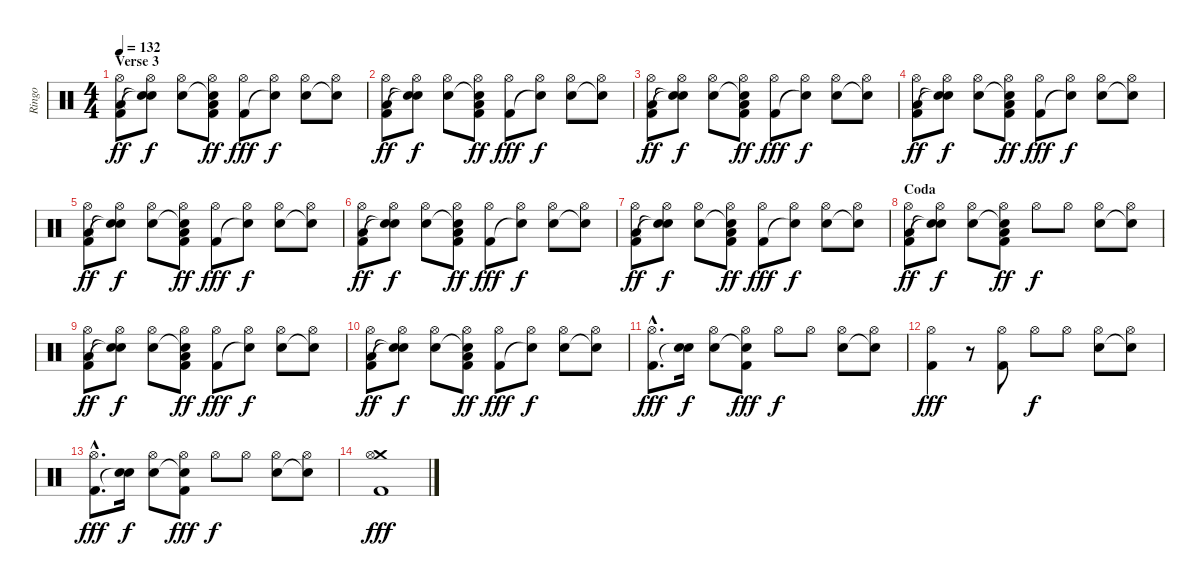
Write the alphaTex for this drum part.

\track ("Ringo" "Ringo") {instrument percussion}
\staff {score}
\articulation defaults
\ts (4 4)
\section ("" "Verse 3")
\tempo 132
\clef neutral
\ks c
("Hi-Hat (open)" "Kick (hit) 2" "Low Floor Tom (hit)").8{dy ff} ("Hi-Hat (open)" "Snare (hit)"{t} "Snare (hit)"{t}).8{dy f} ("Hi-Hat (open)" "Snare (hit) 2").8 ("Hi-Hat (open)" "Snare (hit)"{t} "Kick (hit) 2" "Low Floor Tom (hit)").8{dy ff} ("Hi-Hat (open)" "Kick (hit) 2").8{dy fff} ("Hi-Hat (open)" "Snare (hit)"{t}).8{dy f} ("Hi-Hat (open)" "Snare (hit) 2").8 ("Hi-Hat (open)" "Snare (hit)"{t}).8 |
("Hi-Hat (open)" "Kick (hit) 2" "Low Floor Tom (hit)").8{dy ff} ("Hi-Hat (open)" "Snare (hit)"{t} "Snare (hit)"{t}).8{dy f} ("Hi-Hat (open)" "Snare (hit) 2").8 ("Hi-Hat (open)" "Snare (hit)"{t} "Kick (hit) 2" "Low Floor Tom (hit)").8{dy ff} ("Hi-Hat (open)" "Kick (hit) 2").8{dy fff} ("Hi-Hat (open)" "Snare (hit)"{t}).8{dy f} ("Hi-Hat (open)" "Snare (hit) 2").8 ("Hi-Hat (open)" "Snare (hit)"{t}).8 |
("Hi-Hat (open)" "Kick (hit) 2" "Low Floor Tom (hit)").8{dy ff} ("Hi-Hat (open)" "Snare (hit)"{t} "Snare (hit)"{t}).8{dy f} ("Hi-Hat (open)" "Snare (hit) 2").8 ("Hi-Hat (open)" "Snare (hit)"{t} "Kick (hit) 2" "Low Floor Tom (hit)").8{dy ff} ("Hi-Hat (open)" "Kick (hit) 2").8{dy fff} ("Hi-Hat (open)" "Snare (hit)"{t}).8{dy f} ("Hi-Hat (open)" "Snare (hit) 2").8 ("Hi-Hat (open)" "Snare (hit)"{t}).8 |
("Hi-Hat (open)" "Kick (hit) 2" "Low Floor Tom (hit)").8{dy ff} ("Hi-Hat (open)" "Snare (hit)"{t} "Snare (hit)"{t}).8{dy f} ("Hi-Hat (open)" "Snare (hit) 2").8 ("Hi-Hat (open)" "Snare (hit)"{t} "Kick (hit) 2" "Low Floor Tom (hit)").8{dy ff} ("Hi-Hat (open)" "Kick (hit) 2").8{dy fff} ("Hi-Hat (open)" "Snare (hit)"{t}).8{dy f} ("Hi-Hat (open)" "Snare (hit) 2").8 ("Hi-Hat (open)" "Snare (hit)"{t}).8 |
("Hi-Hat (open)" "Kick (hit) 2" "Low Floor Tom (hit)").8{dy ff} ("Hi-Hat (open)" "Snare (hit)"{t} "Snare (hit)"{t}).8{dy f} ("Hi-Hat (open)" "Snare (hit) 2").8 ("Hi-Hat (open)" "Snare (hit)"{t} "Kick (hit) 2" "Low Floor Tom (hit)").8{dy ff} ("Hi-Hat (open)" "Kick (hit) 2").8{dy fff} ("Hi-Hat (open)" "Snare (hit)"{t}).8{dy f} ("Hi-Hat (open)" "Snare (hit) 2").8 ("Hi-Hat (open)" "Snare (hit)"{t}).8 |
("Hi-Hat (open)" "Kick (hit) 2" "Low Floor Tom (hit)").8{dy ff} ("Hi-Hat (open)" "Snare (hit)"{t} "Snare (hit)"{t}).8{dy f} ("Hi-Hat (open)" "Snare (hit) 2").8 ("Hi-Hat (open)" "Snare (hit)"{t} "Kick (hit) 2" "Low Floor Tom (hit)").8{dy ff} ("Hi-Hat (open)" "Kick (hit) 2").8{dy fff} ("Hi-Hat (open)" "Snare (hit)"{t}).8{dy f} ("Hi-Hat (open)" "Snare (hit) 2").8 ("Hi-Hat (open)" "Snare (hit)"{t}).8 |
("Hi-Hat (open)" "Kick (hit) 2" "Low Floor Tom (hit)").8{dy ff} ("Hi-Hat (open)" "Snare (hit)"{t} "Snare (hit)"{t}).8{dy f} ("Hi-Hat (open)" "Snare (hit) 2").8 ("Hi-Hat (open)" "Snare (hit)"{t} "Kick (hit) 2" "Low Floor Tom (hit)").8{dy ff} ("Hi-Hat (open)" "Kick (hit) 2").8{dy fff} ("Hi-Hat (open)" "Snare (hit)"{t}).8{dy f} ("Hi-Hat (open)" "Snare (hit) 2").8 ("Hi-Hat (open)" "Snare (hit)"{t}).8 |
\section ("" "Coda")
("Hi-Hat (open)" "Kick (hit) 2" "Low Floor Tom (hit)").8{dy ff} ("Hi-Hat (open)" "Snare (hit)"{t} "Snare (hit)"{t}).8{dy f} ("Hi-Hat (open)" "Snare (hit) 2").8 ("Hi-Hat (open)" "Snare (hit)"{t} "Kick (hit) 2" "Low Floor Tom (hit)").8{dy ff} "Hi-Hat (open)".8{dy f} "Hi-Hat (open)".8 ("Hi-Hat (open)" "Snare (hit) 2").8 ("Hi-Hat (open)" "Snare (hit)"{t}).8 |
("Hi-Hat (open)" "Kick (hit) 2" "Low Floor Tom (hit)").8{dy ff} ("Hi-Hat (open)" "Snare (hit)"{t} "Snare (hit)"{t}).8{dy f} ("Hi-Hat (open)" "Snare (hit) 2").8 ("Hi-Hat (open)" "Snare (hit)"{t} "Kick (hit) 2" "Low Floor Tom (hit)").8{dy ff} ("Hi-Hat (open)" "Kick (hit) 2").8{dy fff} ("Hi-Hat (open)" "Snare (hit)"{t}).8{dy f} ("Hi-Hat (open)" "Snare (hit) 2").8 ("Hi-Hat (open)" "Snare (hit)"{t}).8 |
("Hi-Hat (open)" "Kick (hit) 2" "Low Floor Tom (hit)").8{dy ff} ("Hi-Hat (open)" "Snare (hit)"{t} "Snare (hit)"{t}).8{dy f} ("Hi-Hat (open)" "Snare (hit) 2").8 ("Hi-Hat (open)" "Snare (hit)"{t} "Kick (hit) 2" "Low Floor Tom (hit)").8{dy ff} ("Hi-Hat (open)" "Kick (hit) 2").8{dy fff} ("Hi-Hat (open)" "Snare (hit)"{t}).8{dy f} ("Hi-Hat (open)" "Snare (hit) 2").8 ("Hi-Hat (open)" "Snare (hit)"{t}).8 |
("Hi-Hat (open)"{hac} "Kick (hit) 2"{hac}).8{d dy fff} ("Snare (hit) 2" "Snare (hit)"{t}).16{dy f} ("Hi-Hat (open)" "Snare (hit) 2").8 ("Hi-Hat (open)" "Snare (hit)"{t} "Kick (hit) 2").8{dy fff} "Hi-Hat (open)".8{dy f} "Hi-Hat (open)".8 ("Hi-Hat (open)" "Snare (hit) 2").8 ("Hi-Hat (open)" "Snare (hit)"{t}).8 |
("Hi-Hat (open)" "Kick (hit) 2").4{dy fff} r.8 ("Hi-Hat (open)" "Kick (hit) 2").8 "Hi-Hat (open)".8{dy f} "Hi-Hat (open)".8 ("Hi-Hat (open)" "Snare (hit) 2").8 ("Hi-Hat (open)" "Snare (hit)"{t}).8 |
("Hi-Hat (open)"{hac} "Kick (hit) 2"{hac}).8{d dy fff} ("Snare (hit) 2" "Snare (hit)"{t}).16{dy f} ("Hi-Hat (open)" "Snare (hit) 2").8 ("Hi-Hat (open)" "Snare (hit)"{t} "Kick (hit) 2").8{dy fff} "Hi-Hat (open)".8{dy f} "Hi-Hat (open)".8 ("Hi-Hat (open)" "Snare (hit) 2").8 ("Hi-Hat (open)" "Snare (hit)"{t}).8 |
("Crash medium (hit)" "Hi-Hat (open)" "Kick (hit) 2").1{dy fff}
